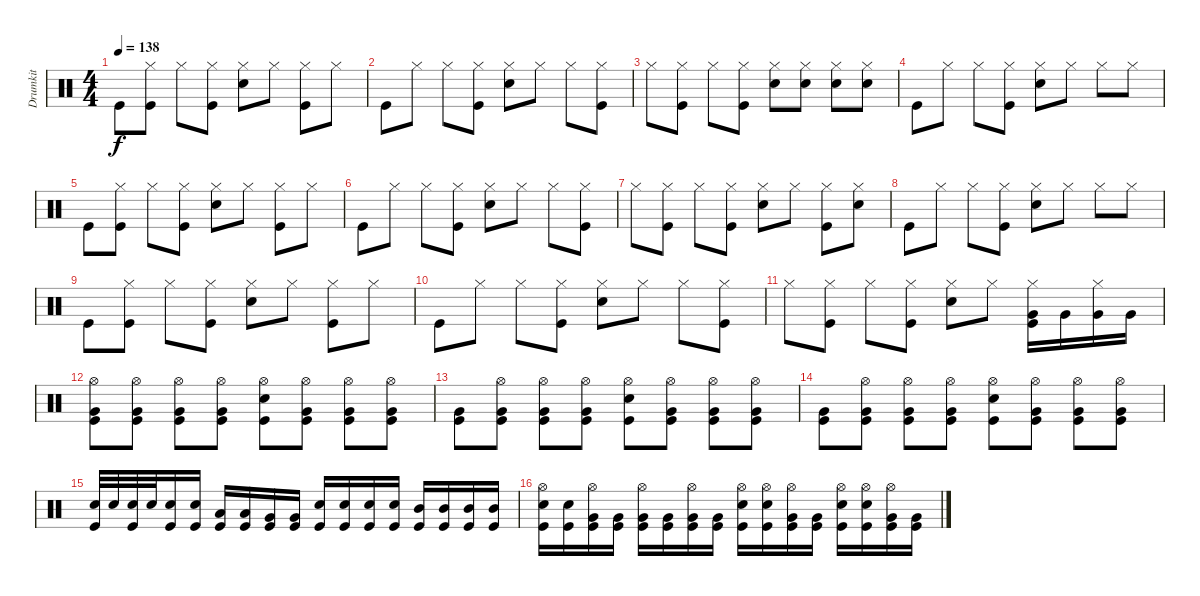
\track ("Drumkit" "Drumkit") {instrument percussion}
\staff {score}
\articulation defaults
\ts (4 4)
\tempo 138
\clef neutral
\ks c "Kick (hit)".8{dy f}
("Hi-Hat (closed)" "Kick (hit)").8 "Hi-Hat (closed)".8 ("Hi-Hat (closed)" "Kick (hit)").8 ("Hi-Hat (closed)" "Snare (hit) 2").8 "Hi-Hat (closed)".8 ("Kick (hit)" "Hi-Hat (closed)").8 "Hi-Hat (closed)".8 |
"Kick (hit)".8 "Hi-Hat (closed)".8 "Hi-Hat (closed)".8 ("Hi-Hat (closed)" "Kick (hit)").8 ("Snare (hit) 2" "Hi-Hat (closed)").8 "Hi-Hat (closed)".8 "Hi-Hat (closed)".8 ("Hi-Hat (closed)" "Kick (hit)").8 |
"Hi-Hat (closed)".8 ("Hi-Hat (closed)" "Kick (hit)").8 "Hi-Hat (closed)".8 ("Hi-Hat (closed)" "Kick (hit)").8 ("Hi-Hat (closed)" "Snare (hit) 2").8 ("Hi-Hat (closed)" "Snare (hit) 2").8 ("Hi-Hat (closed)" "Snare (hit) 2").8 ("Hi-Hat (closed)" "Snare (hit) 2").8 |
"Kick (hit)".8 "Hi-Hat (closed)".8 "Hi-Hat (closed)".8 ("Hi-Hat (closed)" "Kick (hit)").8 ("Snare (hit) 2" "Hi-Hat (closed)").8 "Hi-Hat (closed)".8 "Hi-Hat (closed)".8 "Hi-Hat (closed)".8 |
"Kick (hit)".8 ("Hi-Hat (closed)" "Kick (hit)").8 "Hi-Hat (closed)".8 ("Hi-Hat (closed)" "Kick (hit)").8 ("Hi-Hat (closed)" "Snare (hit) 2").8 "Hi-Hat (closed)".8 ("Kick (hit)" "Hi-Hat (closed)").8 "Hi-Hat (closed)".8 |
"Kick (hit)".8 "Hi-Hat (closed)".8 "Hi-Hat (closed)".8 ("Hi-Hat (closed)" "Kick (hit)").8 ("Snare (hit) 2" "Hi-Hat (closed)").8 "Hi-Hat (closed)".8 "Hi-Hat (closed)".8 ("Hi-Hat (closed)" "Kick (hit)").8 |
"Hi-Hat (closed)".8 ("Hi-Hat (closed)" "Kick (hit)").8 "Hi-Hat (closed)".8 ("Hi-Hat (closed)" "Kick (hit)").8 ("Hi-Hat (closed)" "Snare (hit) 2").8 "Hi-Hat (closed)".8 ("Kick (hit)" "Hi-Hat (closed)").8 ("Hi-Hat (closed)" "Snare (hit) 2").8 |
"Kick (hit)".8 "Hi-Hat (closed)".8 "Hi-Hat (closed)".8 ("Hi-Hat (closed)" "Kick (hit)").8 ("Snare (hit) 2" "Hi-Hat (closed)").8 "Hi-Hat (closed)".8 "Hi-Hat (closed)".8 "Hi-Hat (closed)".8 |
"Kick (hit)".8 ("Hi-Hat (closed)" "Kick (hit)").8 "Hi-Hat (closed)".8 ("Hi-Hat (closed)" "Kick (hit)").8 ("Hi-Hat (closed)" "Snare (hit) 2").8 "Hi-Hat (closed)".8 ("Kick (hit)" "Hi-Hat (closed)").8 "Hi-Hat (closed)".8 |
"Kick (hit)".8 "Hi-Hat (closed)".8 "Hi-Hat (closed)".8 ("Hi-Hat (closed)" "Kick (hit)").8 ("Snare (hit) 2" "Hi-Hat (closed)").8 "Hi-Hat (closed)".8 "Hi-Hat (closed)".8 ("Hi-Hat (closed)" "Kick (hit)").8 |
"Hi-Hat (closed)".8 ("Hi-Hat (closed)" "Kick (hit)").8 "Hi-Hat (closed)".8 ("Hi-Hat (closed)" "Kick (hit)").8 ("Hi-Hat (closed)" "Snare (hit) 2").8 "Hi-Hat (closed)".8 ("Kick (hit)" "Hi-Hat (closed)" "Very Low Tom (hit)").16 "Very Low Tom (hit)".16 ("Very Low Tom (hit)" "Hi-Hat (closed)").16 "Very Low Tom (hit)".16 |
("Kick (hit)" "Hi-Hat (open)" "Very Low Tom (hit)").8 ("Hi-Hat (open)" "Kick (hit)" "Very Low Tom (hit)").8 ("Hi-Hat (open)" "Kick (hit)" "Very Low Tom (hit)").8 ("Kick (hit)" "Very Low Tom (hit)" "Hi-Hat (open)").8 ("Kick (hit)" "Hi-Hat (open)" "Snare (hit) 2").8 ("Hi-Hat (open)" "Kick (hit)" "Very Low Tom (hit)").8 ("Hi-Hat (open)" "Kick (hit)" "Very Low Tom (hit)").8 ("Kick (hit)" "Hi-Hat (open)" "Very Low Tom (hit)").8 |
("Kick (hit)" "Very Low Tom (hit)").8 ("Hi-Hat (open)" "Kick (hit)" "Very Low Tom (hit)").8 ("Hi-Hat (open)" "Kick (hit)" "Very Low Tom (hit)").8 ("Hi-Hat (open)" "Kick (hit)" "Very Low Tom (hit)").8 ("Hi-Hat (open)" "Snare (hit) 2" "Kick (hit)").8 ("Hi-Hat (open)" "Kick (hit)" "Very Low Tom (hit)").8 ("Kick (hit)" "Hi-Hat (open)" "Very Low Tom (hit)").8 ("Hi-Hat (open)" "Kick (hit)" "Very Low Tom (hit)").8 |
("Kick (hit)" "Very Low Tom (hit)").8 ("Hi-Hat (open)" "Kick (hit)" "Very Low Tom (hit)").8 ("Hi-Hat (open)" "Kick (hit)" "Very Low Tom (hit)").8 ("Hi-Hat (open)" "Kick (hit)" "Very Low Tom (hit)").8 ("Snare (hit) 2" "Hi-Hat (open)" "Kick (hit)").8 ("Hi-Hat (open)" "Kick (hit)" "Very Low Tom (hit)").8 ("Hi-Hat (open)" "Kick (hit)" "Very Low Tom (hit)").8 ("Hi-Hat (open)" "Kick (hit)" "Very Low Tom (hit)").8 |
("Snare (hit) 2" "Kick (hit)").32 "Snare (hit) 2".32 ("Snare (hit) 2" "Kick (hit)").32 "Snare (hit) 2".32 ("Snare (hit) 2" "Kick (hit)").16 ("Snare (hit) 2" "Kick (hit)").16 ("Low Tom (hit)" "Kick (hit)").16 ("Low Tom (hit)" "Kick (hit)").16 ("Very Low Tom (hit)" "Kick (hit)").16 ("Very Low Tom (hit)" "Kick (hit)").16 ("Snare (hit) 2" "Kick (hit)").16 ("Snare (hit) 2" "Kick (hit)").16 ("Snare (hit) 2" "Kick (hit)").16 ("Snare (hit) 2" "Kick (hit)").16 ("Kick (hit)" "Mid Tom (hit)").16 ("Kick (hit)" "Mid Tom (hit)").16 ("Kick (hit)" "Mid Tom (hit)").16 ("Kick (hit)" "Mid Tom (hit)").16 |
("Kick (hit)" "Hi-Hat (open)" "Snare (hit) 2").16 ("Kick (hit)" "Snare (hit) 2").16 ("Kick (hit)" "Very Low Tom (hit)" "Hi-Hat (open)").16 ("Kick (hit)" "Very Low Tom (hit)").16 ("Kick (hit)" "Very Low Tom (hit)" "Hi-Hat (open)").16 ("Kick (hit)" "Very Low Tom (hit)").16 ("Kick (hit)" "Very Low Tom (hit)" "Hi-Hat (open)").16 ("Kick (hit)" "Very Low Tom (hit)").16 ("Kick (hit)" "Hi-Hat (open)" "Snare (hit) 2").16 ("Kick (hit)" "Hi-Hat (open)" "Snare (hit) 2").16 ("Kick (hit)" "Hi-Hat (open)" "Very Low Tom (hit)").16 ("Kick (hit)" "Very Low Tom (hit)").16 ("Kick (hit)" "Snare (hit) 2" "Hi-Hat (open)").16 ("Kick (hit)" "Snare (hit) 2" "Hi-Hat (open)").16 ("Kick (hit)" "Very Low Tom (hit)" "Hi-Hat (open)").16 ("Kick (hit)" "Very Low Tom (hit)").16
